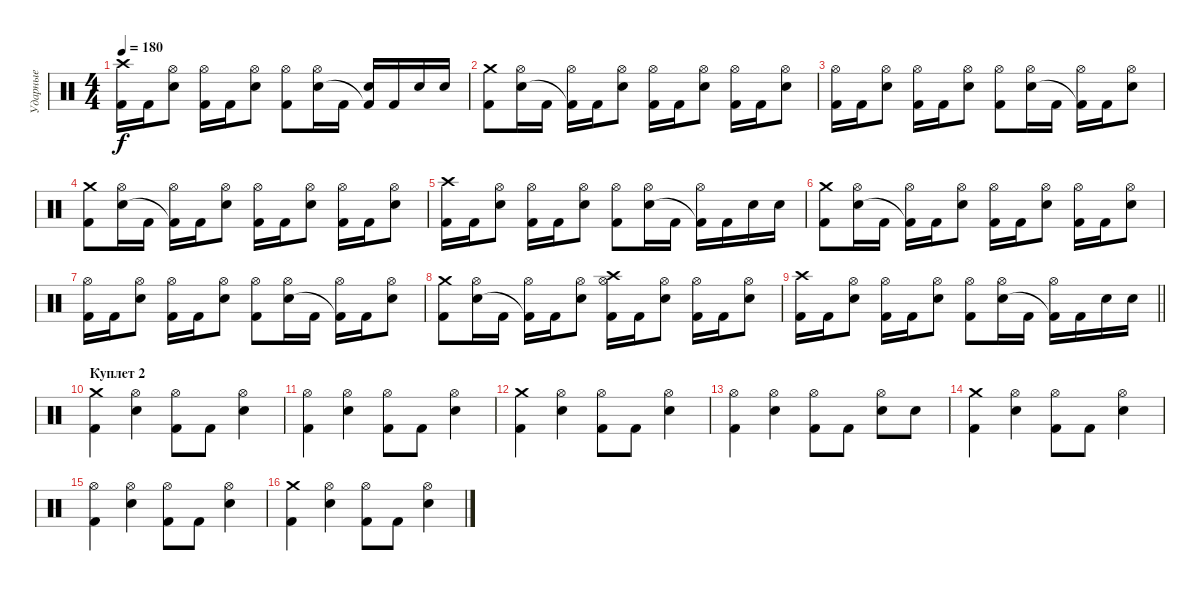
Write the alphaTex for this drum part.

\track ("Ударные" "Ударные") {instrument percussion}
\staff {score}
\articulation defaults
\ts (4 4)
\tempo 180
\clef neutral
\ks c
("Crash high (hit)" "Kick (hit) 2").16{dy f} "Kick (hit) 2".16 ("Hi-Hat (open)" "Snare (hit) 2").8 ("Hi-Hat (open)" "Kick (hit) 2").16 "Kick (hit) 2".16 ("Hi-Hat (open)" "Snare (hit) 2").8 ("Hi-Hat (open)" "Kick (hit) 2").8 ("Hi-Hat (open)" "Snare (hit) 2").16 "Kick (hit) 2".16 ("Snare (hit) 2" "Kick (hit) 2"{t}).16 "Kick (hit) 2".16 "Snare (hit) 2".16 "Snare (hit) 2".16 |
("Crash medium (hit)" "Kick (hit) 2").8 ("Hi-Hat (open)" "Snare (hit) 2").16 "Kick (hit) 2".16 ("Hi-Hat (open)" "Kick (hit) 2"{t}).16 "Kick (hit) 2".16 ("Hi-Hat (open)" "Snare (hit) 2").8 ("Hi-Hat (open)" "Kick (hit) 2").16 "Kick (hit) 2".16 ("Hi-Hat (open)" "Snare (hit) 2").8 ("Hi-Hat (open)" "Kick (hit) 2").16 "Kick (hit) 2".16 ("Hi-Hat (open)" "Snare (hit) 2").8 |
("Hi-Hat (open)" "Kick (hit) 2").16 "Kick (hit) 2".16 ("Hi-Hat (open)" "Snare (hit) 2").8 ("Hi-Hat (open)" "Kick (hit) 2").16 "Kick (hit) 2".16 ("Hi-Hat (open)" "Snare (hit) 2").8 ("Hi-Hat (open)" "Kick (hit) 2").8 ("Hi-Hat (open)" "Snare (hit) 2").16 "Kick (hit) 2".16 ("Hi-Hat (open)" "Kick (hit) 2"{t}).16 "Kick (hit) 2".16 ("Hi-Hat (open)" "Snare (hit) 2").8 |
("Crash medium (hit)" "Kick (hit) 2").8 ("Hi-Hat (open)" "Snare (hit) 2").16 "Kick (hit) 2".16 ("Hi-Hat (open)" "Kick (hit) 2"{t}).16 "Kick (hit) 2".16 ("Hi-Hat (open)" "Snare (hit) 2").8 ("Hi-Hat (open)" "Kick (hit) 2").16 "Kick (hit) 2".16 ("Hi-Hat (open)" "Snare (hit) 2").8 ("Hi-Hat (open)" "Kick (hit) 2").16 "Kick (hit) 2".16 ("Hi-Hat (open)" "Snare (hit) 2").8 |
("Crash high (hit)" "Kick (hit) 2").16 "Kick (hit) 2".16 ("Hi-Hat (open)" "Snare (hit) 2").8 ("Hi-Hat (open)" "Kick (hit) 2").16 "Kick (hit) 2".16 ("Hi-Hat (open)" "Snare (hit) 2").8 ("Hi-Hat (open)" "Kick (hit) 2").8 ("Hi-Hat (open)" "Snare (hit) 2").16 "Kick (hit) 2".16 ("Hi-Hat (open)" "Kick (hit) 2"{t}).16 "Kick (hit) 2".16 "Snare (hit) 2".16 "Snare (hit) 2".16 |
("Crash medium (hit)" "Kick (hit) 2").8 ("Hi-Hat (open)" "Snare (hit) 2").16 "Kick (hit) 2".16 ("Hi-Hat (open)" "Kick (hit) 2"{t}).16 "Kick (hit) 2".16 ("Hi-Hat (open)" "Snare (hit) 2").8 ("Hi-Hat (open)" "Kick (hit) 2").16 "Kick (hit) 2".16 ("Hi-Hat (open)" "Snare (hit) 2").8 ("Hi-Hat (open)" "Kick (hit) 2").16 "Kick (hit) 2".16 ("Hi-Hat (open)" "Snare (hit) 2").8 |
("Hi-Hat (open)" "Kick (hit) 2").16 "Kick (hit) 2".16 ("Hi-Hat (open)" "Snare (hit) 2").8 ("Hi-Hat (open)" "Kick (hit) 2").16 "Kick (hit) 2".16 ("Hi-Hat (open)" "Snare (hit) 2").8 ("Hi-Hat (open)" "Kick (hit) 2").8 ("Hi-Hat (open)" "Snare (hit) 2").16 "Kick (hit) 2".16 ("Hi-Hat (open)" "Kick (hit) 2"{t}).16 "Kick (hit) 2".16 ("Hi-Hat (open)" "Snare (hit) 2").8 |
("Crash medium (hit)" "Kick (hit) 2").8 ("Hi-Hat (open)" "Snare (hit) 2").16 "Kick (hit) 2".16 ("Hi-Hat (open)" "Kick (hit) 2"{t}).16 "Kick (hit) 2".16 ("Hi-Hat (open)" "Snare (hit) 2").8 ("Crash high (hit)" "Hi-Hat (open)" "Kick (hit) 2").16 "Kick (hit) 2".16 ("Hi-Hat (open)" "Snare (hit) 2").8 ("Hi-Hat (open)" "Kick (hit) 2").16 "Kick (hit) 2".16 ("Hi-Hat (open)" "Snare (hit) 2").8 |
\barLineRight lightlight
("Crash high (hit)" "Kick (hit) 2").16 "Kick (hit) 2".16 ("Hi-Hat (open)" "Snare (hit) 2").8 ("Hi-Hat (open)" "Kick (hit) 2").16 "Kick (hit) 2".16 ("Hi-Hat (open)" "Snare (hit) 2").8 ("Hi-Hat (open)" "Kick (hit) 2").8 ("Hi-Hat (open)" "Snare (hit) 2").16 "Kick (hit) 2".16 ("Hi-Hat (open)" "Kick (hit) 2"{t}).16 "Kick (hit) 2".16 "Snare (hit) 2".16 "Snare (hit) 2".16 |
\section ("" "Куплет 2")
("Crash medium (hit)" "Kick (hit) 2").4 ("Hi-Hat (open)" "Snare (hit) 2").4 ("Hi-Hat (open)" "Kick (hit) 2").8 "Kick (hit) 2".8 ("Hi-Hat (open)" "Snare (hit) 2").4 |
("Hi-Hat (open)" "Kick (hit) 2").4 ("Hi-Hat (open)" "Snare (hit) 2").4 ("Hi-Hat (open)" "Kick (hit) 2").8 "Kick (hit) 2".8 ("Hi-Hat (open)" "Snare (hit) 2").4 |
("Crash medium (hit)" "Kick (hit) 2").4 ("Hi-Hat (open)" "Snare (hit) 2").4 ("Hi-Hat (open)" "Kick (hit) 2").8 "Kick (hit) 2".8 ("Hi-Hat (open)" "Snare (hit) 2").4 |
("Hi-Hat (open)" "Kick (hit) 2").4 ("Hi-Hat (open)" "Snare (hit) 2").4 ("Hi-Hat (open)" "Kick (hit) 2").8 "Kick (hit) 2".8 ("Hi-Hat (open)" "Snare (hit) 2").8 "Snare (hit) 2".8 |
("Crash medium (hit)" "Kick (hit) 2").4 ("Hi-Hat (open)" "Snare (hit) 2").4 ("Hi-Hat (open)" "Kick (hit) 2").8 "Kick (hit) 2".8 ("Hi-Hat (open)" "Snare (hit) 2").4 |
("Hi-Hat (open)" "Kick (hit) 2").4 ("Hi-Hat (open)" "Snare (hit) 2").4 ("Hi-Hat (open)" "Kick (hit) 2").8 "Kick (hit) 2".8 ("Hi-Hat (open)" "Snare (hit) 2").4 |
("Crash medium (hit)" "Kick (hit) 2").4 ("Hi-Hat (open)" "Snare (hit) 2").4 ("Hi-Hat (open)" "Kick (hit) 2").8 "Kick (hit) 2".8 ("Hi-Hat (open)" "Snare (hit) 2").4
